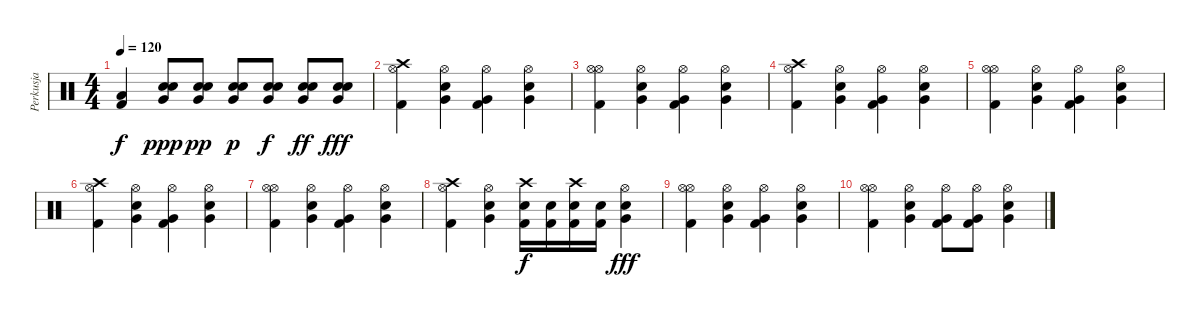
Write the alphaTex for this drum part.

\track ("Perkusja" "Perkusja") {instrument percussion}
\staff {score}
\articulation defaults
\ts (4 4)
\tempo 120
\clef neutral
\ks c
("Kick (hit) 2" "Low Floor Tom (hit)").4{dy f} ("Very Low Tom (hit)" "Electric Snare (hit)" "Snare (hit) 2").8{dy ppp} ("Very Low Tom (hit)" "Electric Snare (hit)" "Snare (hit) 2").8{dy pp} ("Very Low Tom (hit)" "Electric Snare (hit)" "Snare (hit) 2").8{dy p} ("Very Low Tom (hit)" "Electric Snare (hit)" "Snare (hit) 2").8{dy f} ("Very Low Tom (hit)" "Electric Snare (hit)" "Snare (hit) 2").8{dy ff} ("Very Low Tom (hit)" "Electric Snare (hit)" "Snare (hit) 2").8{dy fff} |
("Crash high (hit)" "Kick (hit) 2" "Hi-Hat (open)").4 ("Very Low Tom (hit)" "Electric Snare (hit)" "Hi-Hat (open)").4 ("Kick (hit) 2" "Very Low Tom (hit)" "Hi-Hat (open)").4 ("Very Low Tom (hit)" "Electric Snare (hit)" "Hi-Hat (open)").4 |
("Hi-Hat (open)" "Kick (hit) 2" "Hi-Hat (open)").4 ("Very Low Tom (hit)" "Electric Snare (hit)" "Hi-Hat (open)").4 ("Kick (hit) 2" "Very Low Tom (hit)" "Hi-Hat (open)").4 ("Very Low Tom (hit)" "Electric Snare (hit)" "Hi-Hat (open)").4 |
("Crash high (hit)" "Kick (hit) 2" "Hi-Hat (open)").4 ("Very Low Tom (hit)" "Electric Snare (hit)" "Hi-Hat (open)").4 ("Kick (hit) 2" "Very Low Tom (hit)" "Hi-Hat (open)").4 ("Very Low Tom (hit)" "Electric Snare (hit)" "Hi-Hat (open)").4 |
("Hi-Hat (open)" "Kick (hit) 2" "Hi-Hat (open)").4 ("Very Low Tom (hit)" "Electric Snare (hit)" "Hi-Hat (open)").4 ("Kick (hit) 2" "Very Low Tom (hit)" "Hi-Hat (open)").4 ("Very Low Tom (hit)" "Electric Snare (hit)" "Hi-Hat (open)").4 |
("Crash high (hit)" "Kick (hit) 2" "Hi-Hat (open)").4 ("Very Low Tom (hit)" "Electric Snare (hit)" "Hi-Hat (open)").4 ("Kick (hit) 2" "Very Low Tom (hit)" "Hi-Hat (open)").4 ("Very Low Tom (hit)" "Electric Snare (hit)" "Hi-Hat (open)").4 |
("Hi-Hat (open)" "Kick (hit) 2" "Hi-Hat (open)").4 ("Very Low Tom (hit)" "Electric Snare (hit)" "Hi-Hat (open)").4 ("Kick (hit) 2" "Very Low Tom (hit)" "Hi-Hat (open)").4 ("Very Low Tom (hit)" "Electric Snare (hit)" "Hi-Hat (open)").4 |
("Crash high (hit)" "Kick (hit) 2" "Hi-Hat (open)").4 ("Very Low Tom (hit)" "Electric Snare (hit)" "Hi-Hat (open)").4 ("Crash high (hit)" "Snare (hit) 2" "Kick (hit) 2").16{dy f} ("Snare (hit) 2" "Kick (hit) 2").16 ("Crash high (hit)" "Snare (hit) 2" "Kick (hit) 2").16 ("Snare (hit) 2" "Kick (hit) 2").16 ("Very Low Tom (hit)" "Electric Snare (hit)" "Hi-Hat (open)").4{dy fff} |
("Hi-Hat (open)" "Kick (hit) 2" "Hi-Hat (open)").4 ("Very Low Tom (hit)" "Electric Snare (hit)" "Hi-Hat (open)").4 ("Kick (hit) 2" "Very Low Tom (hit)" "Hi-Hat (open)").4 ("Very Low Tom (hit)" "Electric Snare (hit)" "Hi-Hat (open)").4 |
("Hi-Hat (open)" "Kick (hit) 2" "Hi-Hat (open)").4 ("Very Low Tom (hit)" "Electric Snare (hit)" "Hi-Hat (open)").4 ("Kick (hit) 2" "Very Low Tom (hit)" "Hi-Hat (open)").8 ("Kick (hit) 2" "Very Low Tom (hit)" "Hi-Hat (open)").8 ("Very Low Tom (hit)" "Electric Snare (hit)" "Hi-Hat (open)").4
